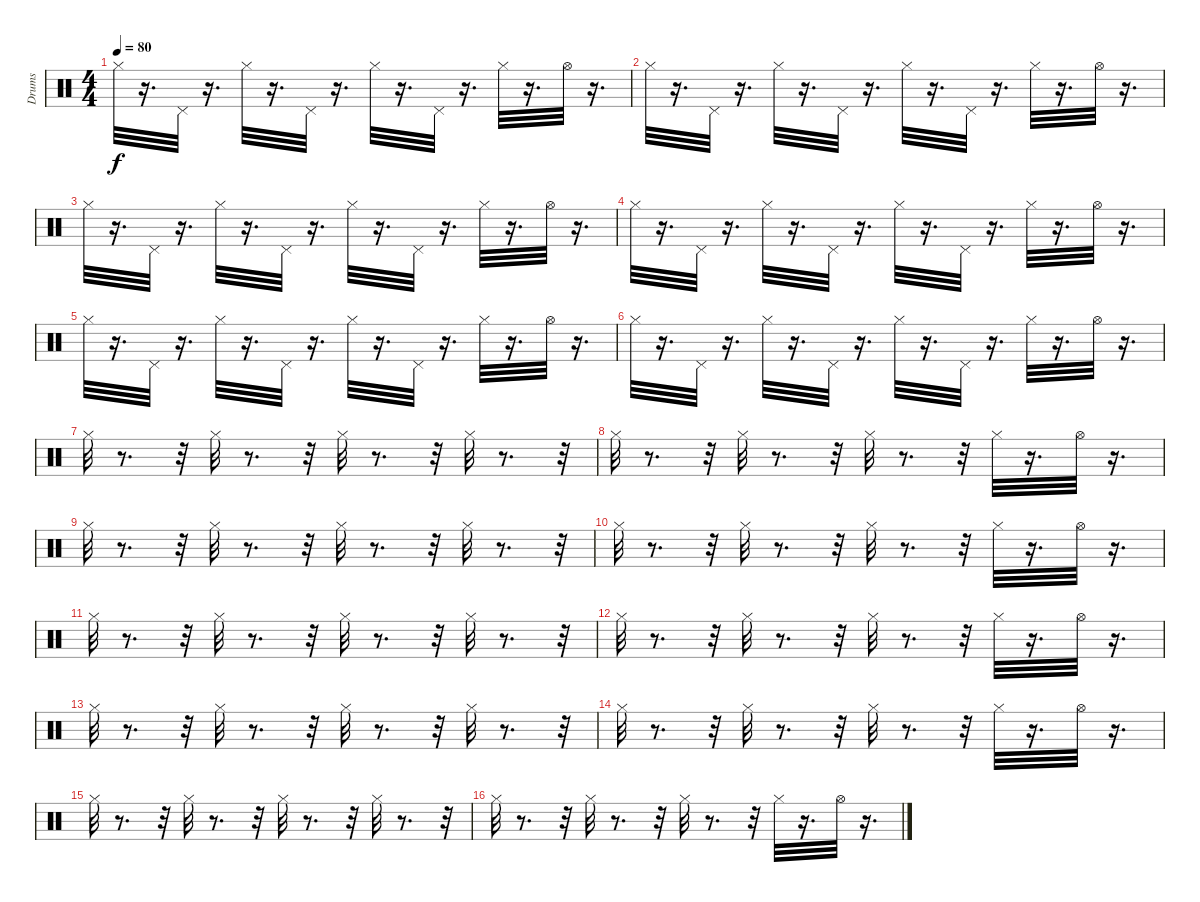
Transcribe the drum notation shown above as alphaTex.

\track ("Drums" "Drums") {instrument percussion}
\staff {score}
\articulation defaults
\ts (4 4)
\tempo 80
\clef neutral
\ks c "Hi-Hat (closed)".32{dy f}
r.16{d} "Pedal Hi-Hat (hit)".32 r.16{d} "Hi-Hat (closed)".32 r.16{d} "Pedal Hi-Hat (hit)".32 r.16{d} "Hi-Hat (closed)".32 r.16{d} "Pedal Hi-Hat (hit)".32 r.16{d} "Hi-Hat (closed)".32 r.16{d} "Hi-Hat (open)".32 r.16{d} |
"Hi-Hat (closed)".32 r.16{d} "Pedal Hi-Hat (hit)".32 r.16{d} "Hi-Hat (closed)".32 r.16{d} "Pedal Hi-Hat (hit)".32 r.16{d} "Hi-Hat (closed)".32 r.16{d} "Pedal Hi-Hat (hit)".32 r.16{d} "Hi-Hat (closed)".32 r.16{d} "Hi-Hat (open)".32 r.16{d} |
"Hi-Hat (closed)".32 r.16{d} "Pedal Hi-Hat (hit)".32 r.16{d} "Hi-Hat (closed)".32 r.16{d} "Pedal Hi-Hat (hit)".32 r.16{d} "Hi-Hat (closed)".32 r.16{d} "Pedal Hi-Hat (hit)".32 r.16{d} "Hi-Hat (closed)".32 r.16{d} "Hi-Hat (open)".32 r.16{d} |
"Hi-Hat (closed)".32 r.16{d} "Pedal Hi-Hat (hit)".32 r.16{d} "Hi-Hat (closed)".32 r.16{d} "Pedal Hi-Hat (hit)".32 r.16{d} "Hi-Hat (closed)".32 r.16{d} "Pedal Hi-Hat (hit)".32 r.16{d} "Hi-Hat (closed)".32 r.16{d} "Hi-Hat (open)".32 r.16{d} |
"Hi-Hat (closed)".32 r.16{d} "Pedal Hi-Hat (hit)".32 r.16{d} "Hi-Hat (closed)".32 r.16{d} "Pedal Hi-Hat (hit)".32 r.16{d} "Hi-Hat (closed)".32 r.16{d} "Pedal Hi-Hat (hit)".32 r.16{d} "Hi-Hat (closed)".32 r.16{d} "Hi-Hat (open)".32 r.16{d} |
"Hi-Hat (closed)".32 r.16{d} "Pedal Hi-Hat (hit)".32 r.16{d} "Hi-Hat (closed)".32 r.16{d} "Pedal Hi-Hat (hit)".32 r.16{d} "Hi-Hat (closed)".32 r.16{d} "Pedal Hi-Hat (hit)".32 r.16{d} "Hi-Hat (closed)".32 r.16{d} "Hi-Hat (open)".32 r.16{d} |
"Hi-Hat (closed)".32 r.8{d} r.32 "Hi-Hat (closed)".32 r.8{d} r.32 "Hi-Hat (closed)".32 r.8{d} r.32 "Hi-Hat (closed)".32 r.8{d} r.32 |
"Hi-Hat (closed)".32 r.8{d} r.32 "Hi-Hat (closed)".32 r.8{d} r.32 "Hi-Hat (closed)".32 r.8{d} r.32 "Hi-Hat (closed)".32 r.16{d} "Hi-Hat (open)".32 r.16{d} |
"Hi-Hat (closed)".32 r.8{d} r.32 "Hi-Hat (closed)".32 r.8{d} r.32 "Hi-Hat (closed)".32 r.8{d} r.32 "Hi-Hat (closed)".32 r.8{d} r.32 |
"Hi-Hat (closed)".32 r.8{d} r.32 "Hi-Hat (closed)".32 r.8{d} r.32 "Hi-Hat (closed)".32 r.8{d} r.32 "Hi-Hat (closed)".32 r.16{d} "Hi-Hat (open)".32 r.16{d} |
"Hi-Hat (closed)".32 r.8{d} r.32 "Hi-Hat (closed)".32 r.8{d} r.32 "Hi-Hat (closed)".32 r.8{d} r.32 "Hi-Hat (closed)".32 r.8{d} r.32 |
"Hi-Hat (closed)".32 r.8{d} r.32 "Hi-Hat (closed)".32 r.8{d} r.32 "Hi-Hat (closed)".32 r.8{d} r.32 "Hi-Hat (closed)".32 r.16{d} "Hi-Hat (open)".32 r.16{d} |
"Hi-Hat (closed)".32 r.8{d} r.32 "Hi-Hat (closed)".32 r.8{d} r.32 "Hi-Hat (closed)".32 r.8{d} r.32 "Hi-Hat (closed)".32 r.8{d} r.32 |
"Hi-Hat (closed)".32 r.8{d} r.32 "Hi-Hat (closed)".32 r.8{d} r.32 "Hi-Hat (closed)".32 r.8{d} r.32 "Hi-Hat (closed)".32 r.16{d} "Hi-Hat (open)".32 r.16{d} |
"Hi-Hat (closed)".32 r.8{d} r.32 "Hi-Hat (closed)".32 r.8{d} r.32 "Hi-Hat (closed)".32 r.8{d} r.32 "Hi-Hat (closed)".32 r.8{d} r.32 |
"Hi-Hat (closed)".32 r.8{d} r.32 "Hi-Hat (closed)".32 r.8{d} r.32 "Hi-Hat (closed)".32 r.8{d} r.32 "Hi-Hat (closed)".32 r.16{d} "Hi-Hat (open)".32 r.16{d}
